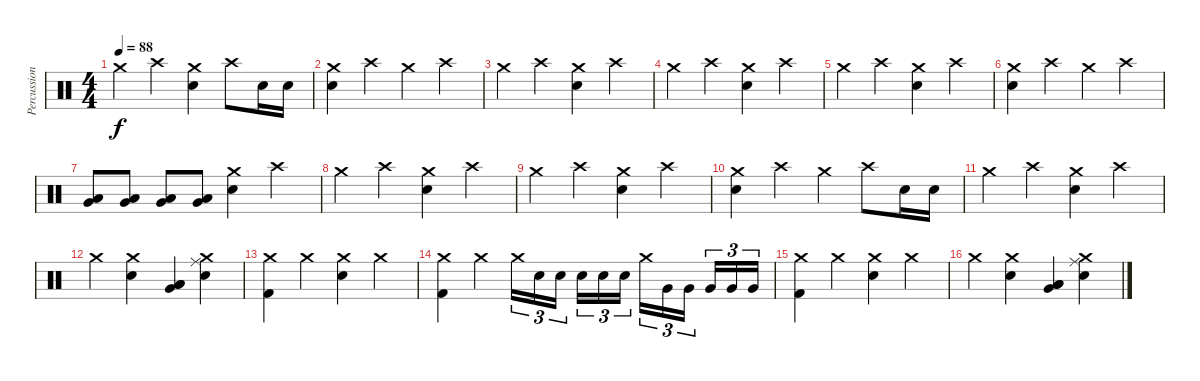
\track ("Percussion" "Percussion") {instrument percussion}
\staff {score}
\articulation defaults
\ts (4 4)
\tempo 88
\clef neutral
\ks c "Crash medium (hit)".4{dy f} "Crash high (hit)".4
("Crash medium (hit)" "Electric Snare (hit)").4 "Crash high (hit)".8 "Electric Snare (hit)".16 "Electric Snare (hit)".16 |
("Crash medium (hit)" "Electric Snare (hit)").4 "Crash high (hit)".4 "Crash medium (hit)".4 "Crash high (hit)".4 |
"Crash medium (hit)".4 "Crash high (hit)".4 ("Crash medium (hit)" "Electric Snare (hit)").4 "Crash high (hit)".4 |
"Crash medium (hit)".4 "Crash high (hit)".4 ("Crash medium (hit)" "Electric Snare (hit)").4 "Crash high (hit)".4 |
"Crash medium (hit)".4 "Crash high (hit)".4 ("Crash medium (hit)" "Electric Snare (hit)").4 "Crash high (hit)".4 |
("Crash medium (hit)" "Electric Snare (hit)").4 "Crash high (hit)".4 "Crash medium (hit)".4 "Crash high (hit)".4 |
("Low Tom (hit)" "Very Low Tom (hit)").8 ("Low Tom (hit)" "Very Low Tom (hit)").8 ("Low Tom (hit)" "Very Low Tom (hit)").8 ("Low Tom (hit)" "Very Low Tom (hit)").8 ("Crash medium (hit)" "Electric Snare (hit)").4 "Crash high (hit)".4 |
"Crash medium (hit)".4 "Crash high (hit)".4 ("Crash medium (hit)" "Electric Snare (hit)").4 "Crash high (hit)".4 |
"Crash medium (hit)".4 "Crash high (hit)".4 ("Crash medium (hit)" "Electric Snare (hit)").4 "Crash high (hit)".4 |
("Crash medium (hit)" "Electric Snare (hit)").4 "Crash high (hit)".4 "Crash medium (hit)".4 "Crash high (hit)".8 "Electric Snare (hit)".16 "Electric Snare (hit)".16 |
"Crash medium (hit)".4 "Crash high (hit)".4 ("Crash medium (hit)" "Electric Snare (hit)").4 "Crash high (hit)".4 |
"Crash medium (hit)".4 ("Crash medium (hit)" "Electric Snare (hit)").4 ("Low Tom (hit)" "Very Low Tom (hit)" "Low Floor Tom (hit)").4 ("Crash medium (hit)" "Electric Snare (hit)" "Ride (middle)").4 |
("Crash medium (hit)" "Kick (hit) 2").4 "Crash medium (hit)".4 ("Crash medium (hit)" "Electric Snare (hit)").4 "Crash medium (hit)".4 |
("Crash medium (hit)" "Kick (hit) 2").4 "Crash medium (hit)".4 "Crash medium (hit)".16{tu (3 2)} "Snare (hit) 2".16{tu (3 2)} "Snare (hit) 2".16{tu (3 2)} "Snare (hit) 2".16{tu (3 2)} "Snare (hit) 2".16{tu (3 2)} "Snare (hit) 2".16{tu (3 2)} "Crash medium (hit)".16{tu (3 2)} "Very Low Tom (hit)".16{tu (3 2)} "Very Low Tom (hit)".16{tu (3 2)} "Very Low Tom (hit)".16{tu (3 2)} "Very Low Tom (hit)".16{tu (3 2)} "Very Low Tom (hit)".16{tu (3 2)} |
("Crash medium (hit)" "Kick (hit) 2").4 "Crash medium (hit)".4 ("Crash medium (hit)" "Electric Snare (hit)").4 "Crash medium (hit)".4 |
"Crash medium (hit)".4 ("Crash medium (hit)" "Electric Snare (hit)").4 ("Low Tom (hit)" "Very Low Tom (hit)" "Low Floor Tom (hit)").4 ("Crash medium (hit)" "Electric Snare (hit)" "Ride (middle)").4
